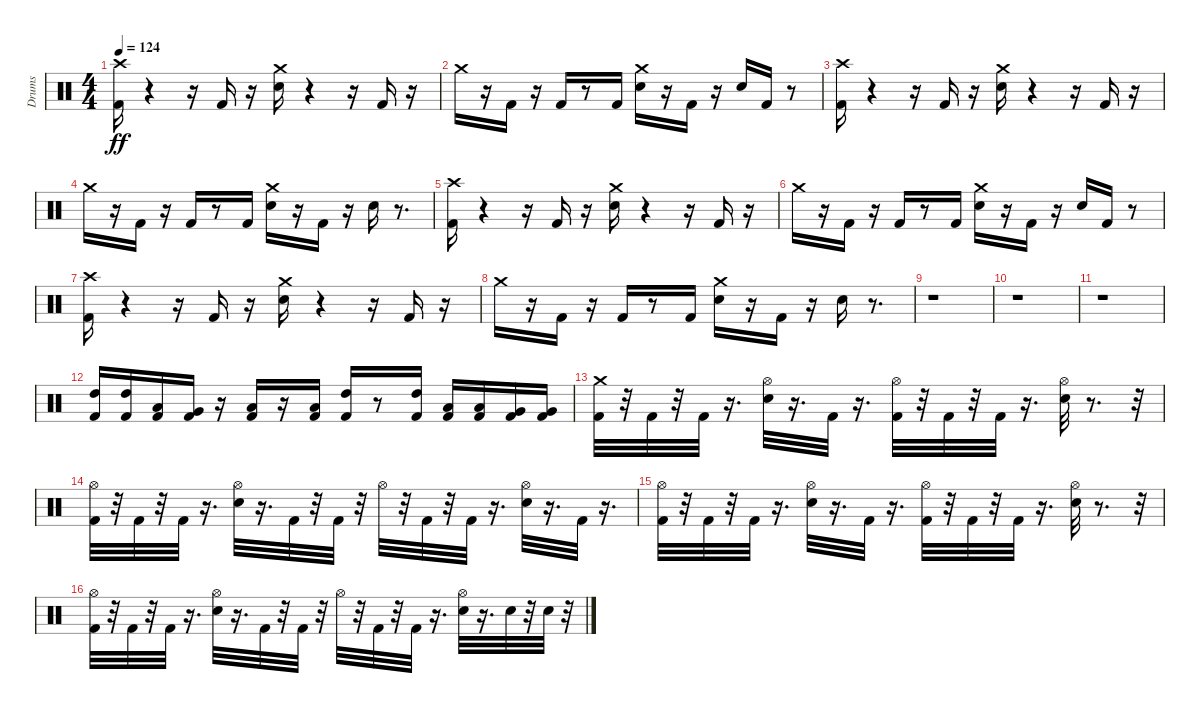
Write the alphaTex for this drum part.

\track ("Drums" "Drums") {instrument percussion}
\staff {score}
\articulation defaults
\ts (4 4)
\tempo 124
\clef neutral
\ks c
("Crash high (hit)" "Kick (hit) 2").16{dy ff} r.4 r.16 "Kick (hit) 2".16 r.16 ("Crash medium (hit)" "Electric Snare (hit)").16 r.4 r.16 "Kick (hit) 2".16 r.16 |
"Crash medium (hit)".16 r.16 "Kick (hit) 2".16 r.16 "Kick (hit) 2".16 r.8 "Kick (hit) 2".16 ("Crash medium (hit)" "Electric Snare (hit)").16 r.16 "Kick (hit) 2".16 r.16 "Electric Snare (hit)".16 "Kick (hit) 2".16 r.8 |
("Kick (hit) 2" "Crash high (hit)").16 r.4 r.16 "Kick (hit) 2".16 r.16 ("Crash medium (hit)" "Electric Snare (hit)").16 r.4 r.16 "Kick (hit) 2".16 r.16 |
"Crash medium (hit)".16 r.16 "Kick (hit) 2".16 r.16 "Kick (hit) 2".16 r.8 "Kick (hit) 2".16 ("Crash medium (hit)" "Electric Snare (hit)").16 r.16 "Kick (hit) 2".16 r.16 "Electric Snare (hit)".16 r.8{d} |
("Crash high (hit)" "Kick (hit) 2").16 r.4 r.16 "Kick (hit) 2".16 r.16 ("Crash medium (hit)" "Electric Snare (hit)").16 r.4 r.16 "Kick (hit) 2".16 r.16 |
"Crash medium (hit)".16 r.16 "Kick (hit) 2".16 r.16 "Kick (hit) 2".16 r.8 "Kick (hit) 2".16 ("Crash medium (hit)" "Electric Snare (hit)").16 r.16 "Kick (hit) 2".16 r.16 "Electric Snare (hit)".16 "Kick (hit) 2".16 r.8 |
("Crash high (hit)" "Kick (hit) 2").16 r.4 r.16 "Kick (hit) 2".16 r.16 ("Crash medium (hit)" "Electric Snare (hit)").16 r.4 r.16 "Kick (hit) 2".16 r.16 |
"Crash medium (hit)".16 r.16 "Kick (hit) 2".16 r.16 "Kick (hit) 2".16 r.8 "Kick (hit) 2".16 ("Crash medium (hit)" "Electric Snare (hit)").16 r.16 "Kick (hit) 2".16 r.16 "Electric Snare (hit)".16 r.8{d} |
r.1 |
r.1 |
r.1 |
("High Tom (hit)" "Kick (hit) 2").16 ("High Tom (hit)" "Kick (hit) 2").16 ("Low Tom (hit)" "Kick (hit) 2").16 ("Very Low Tom (hit)" "Kick (hit) 2").16 r.16 ("Low Tom (hit)" "Kick (hit) 2").16 r.16 ("Low Tom (hit)" "Kick (hit) 2").16 ("High Tom (hit)" "Kick (hit) 2").16 r.8 ("High Tom (hit)" "Kick (hit) 2").16 ("Low Tom (hit)" "Kick (hit) 2").16 ("Low Tom (hit)" "Kick (hit) 2").16 ("Very Low Tom (hit)" "Kick (hit) 2").16 ("Very Low Tom (hit)" "Kick (hit) 2").16 |
("Kick (hit) 2" "Crash medium (hit)").32 r.32 "Kick (hit) 2".32 r.32 "Kick (hit) 2".32 r.16{d} ("Electric Snare (hit)" "Hi-Hat (open)").32 r.16{d} "Kick (hit) 2".32 r.16{d} ("Hi-Hat (open)" "Kick (hit) 2").32 r.32 "Kick (hit) 2".32 r.32 "Kick (hit) 2".32 r.16{d} ("Electric Snare (hit)" "Hi-Hat (open)").32 r.8{d} r.32 |
("Hi-Hat (open)" "Kick (hit) 2").32 r.32 "Kick (hit) 2".32 r.32 "Kick (hit) 2".32 r.16{d} ("Hi-Hat (open)" "Electric Snare (hit)").32 r.16{d} "Kick (hit) 2".32 r.32 "Kick (hit) 2".32 r.32 "Hi-Hat (open)".32 r.32 "Kick (hit) 2".32 r.32 "Kick (hit) 2".32 r.16{d} ("Hi-Hat (open)" "Electric Snare (hit)").32 r.16{d} "Kick (hit) 2".32 r.16{d} |
("Kick (hit) 2" "Hi-Hat (open)").32 r.32 "Kick (hit) 2".32 r.32 "Kick (hit) 2".32 r.16{d} ("Electric Snare (hit)" "Hi-Hat (open)").32 r.16{d} "Kick (hit) 2".32 r.16{d} ("Kick (hit) 2" "Hi-Hat (open)").32 r.32 "Kick (hit) 2".32 r.32 "Kick (hit) 2".32 r.16{d} ("Electric Snare (hit)" "Hi-Hat (open)").32 r.8{d} r.32 |
("Hi-Hat (open)" "Kick (hit) 2").32 r.32 "Kick (hit) 2".32 r.32 "Kick (hit) 2".32 r.16{d} ("Hi-Hat (open)" "Electric Snare (hit)").32 r.16{d} "Kick (hit) 2".32 r.32 "Kick (hit) 2".32 r.32 "Hi-Hat (open)".32 r.32 "Kick (hit) 2".32 r.32 "Kick (hit) 2".32 r.16{d} ("Electric Snare (hit)" "Hi-Hat (open)").32 r.16{d} "Electric Snare (hit)".32 r.32 "Electric Snare (hit)".32 r.32
